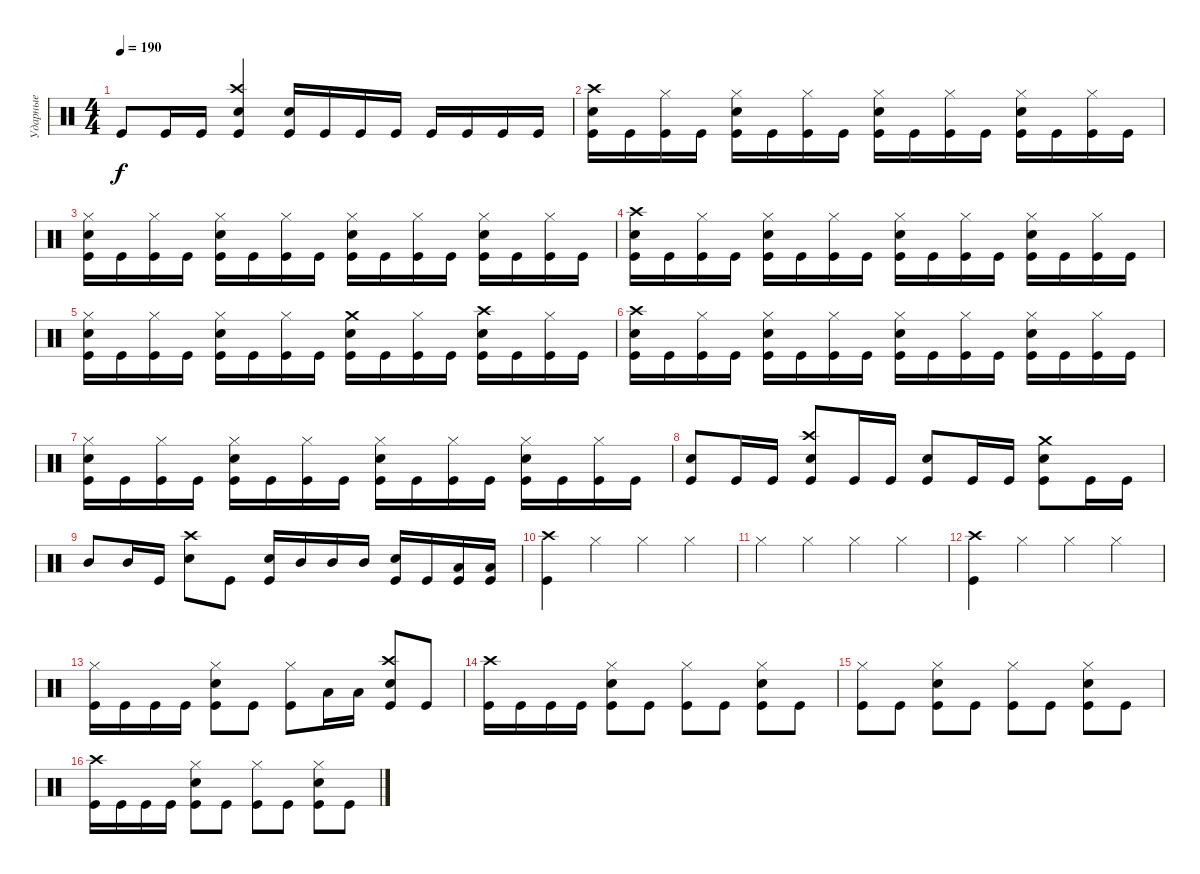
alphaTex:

\track ("Ударные" "Ударные") {instrument percussion}
\staff {score}
\articulation defaults
\ts (4 4)
\tempo 190
\clef neutral
\ks c "Kick (hit)".8{dy f} "Kick (hit)".16 "Kick (hit)".16
("Crash high (hit)" "Electric Snare (hit)" "Kick (hit)").4 ("Electric Snare (hit)" "Kick (hit)").16 "Kick (hit)".16 "Kick (hit)".16 "Kick (hit)".16 "Kick (hit)".16 "Kick (hit)".16 "Kick (hit)".16 "Kick (hit)".16 |
("Crash high (hit)" "Electric Snare (hit)" "Kick (hit)").16 "Kick (hit)".16 ("Hi-Hat (closed)" "Kick (hit)").16 "Kick (hit)".16 ("Hi-Hat (closed)" "Electric Snare (hit)" "Kick (hit)").16 "Kick (hit)".16 ("Hi-Hat (closed)" "Kick (hit)").16 "Kick (hit)".16 ("Hi-Hat (closed)" "Electric Snare (hit)" "Kick (hit)").16 "Kick (hit)".16 ("Hi-Hat (closed)" "Kick (hit)").16 "Kick (hit)".16 ("Hi-Hat (closed)" "Electric Snare (hit)" "Kick (hit)").16 "Kick (hit)".16 ("Hi-Hat (closed)" "Kick (hit)").16 "Kick (hit)".16 |
("Hi-Hat (closed)" "Electric Snare (hit)" "Kick (hit)").16 "Kick (hit)".16 ("Hi-Hat (closed)" "Kick (hit)").16 "Kick (hit)".16 ("Hi-Hat (closed)" "Electric Snare (hit)" "Kick (hit)").16 "Kick (hit)".16 ("Hi-Hat (closed)" "Kick (hit)").16 "Kick (hit)".16 ("Hi-Hat (closed)" "Electric Snare (hit)" "Kick (hit)").16 "Kick (hit)".16 ("Hi-Hat (closed)" "Kick (hit)").16 "Kick (hit)".16 ("Hi-Hat (closed)" "Electric Snare (hit)" "Kick (hit)").16 "Kick (hit)".16 ("Hi-Hat (closed)" "Kick (hit)").16 "Kick (hit)".16 |
("Crash high (hit)" "Electric Snare (hit)" "Kick (hit)").16 "Kick (hit)".16 ("Hi-Hat (closed)" "Kick (hit)").16 "Kick (hit)".16 ("Hi-Hat (closed)" "Electric Snare (hit)" "Kick (hit)").16 "Kick (hit)".16 ("Hi-Hat (closed)" "Kick (hit)").16 "Kick (hit)".16 ("Hi-Hat (closed)" "Electric Snare (hit)" "Kick (hit)").16 "Kick (hit)".16 ("Hi-Hat (closed)" "Kick (hit)").16 "Kick (hit)".16 ("Hi-Hat (closed)" "Electric Snare (hit)" "Kick (hit)").16 "Kick (hit)".16 ("Hi-Hat (closed)" "Kick (hit)").16 "Kick (hit)".16 |
("Hi-Hat (closed)" "Electric Snare (hit)" "Kick (hit)").16 "Kick (hit)".16 ("Hi-Hat (closed)" "Kick (hit)").16 "Kick (hit)".16 ("Hi-Hat (closed)" "Electric Snare (hit)" "Kick (hit)").16 "Kick (hit)".16 ("Hi-Hat (closed)" "Kick (hit)").16 "Kick (hit)".16 ("Crash medium (hit)" "Electric Snare (hit)" "Kick (hit)").16 "Kick (hit)".16 ("Hi-Hat (closed)" "Kick (hit)").16 "Kick (hit)".16 ("Crash high (hit)" "Electric Snare (hit)" "Kick (hit)").16 "Kick (hit)".16 ("Hi-Hat (closed)" "Kick (hit)").16 "Kick (hit)".16 |
("Crash high (hit)" "Electric Snare (hit)" "Kick (hit)").16 "Kick (hit)".16 ("Hi-Hat (closed)" "Kick (hit)").16 "Kick (hit)".16 ("Hi-Hat (closed)" "Electric Snare (hit)" "Kick (hit)").16 "Kick (hit)".16 ("Hi-Hat (closed)" "Kick (hit)").16 "Kick (hit)".16 ("Hi-Hat (closed)" "Electric Snare (hit)" "Kick (hit)").16 "Kick (hit)".16 ("Hi-Hat (closed)" "Kick (hit)").16 "Kick (hit)".16 ("Hi-Hat (closed)" "Electric Snare (hit)" "Kick (hit)").16 "Kick (hit)".16 ("Hi-Hat (closed)" "Kick (hit)").16 "Kick (hit)".16 |
("Hi-Hat (closed)" "Electric Snare (hit)" "Kick (hit)").16 "Kick (hit)".16 ("Hi-Hat (closed)" "Kick (hit)").16 "Kick (hit)".16 ("Hi-Hat (closed)" "Electric Snare (hit)" "Kick (hit)").16 "Kick (hit)".16 ("Hi-Hat (closed)" "Kick (hit)").16 "Kick (hit)".16 ("Hi-Hat (closed)" "Electric Snare (hit)" "Kick (hit)").16 "Kick (hit)".16 ("Hi-Hat (closed)" "Kick (hit)").16 "Kick (hit)".16 ("Hi-Hat (closed)" "Electric Snare (hit)" "Kick (hit)").16 "Kick (hit)".16 ("Hi-Hat (closed)" "Kick (hit)").16 "Kick (hit)".16 |
("Electric Snare (hit)" "Kick (hit)").8 "Kick (hit)".16 "Kick (hit)".16 ("Crash high (hit)" "Electric Snare (hit)" "Kick (hit)").8 "Kick (hit)".16 "Kick (hit)".16 ("Electric Snare (hit)" "Kick (hit)").8 "Kick (hit)".16 "Kick (hit)".16 ("Crash medium (hit)" "Electric Snare (hit)" "Kick (hit)").8 "Kick (hit)".16 "Kick (hit)".16 |
"Mid Tom (hit)".8 "Mid Tom (hit)".16 "Kick (hit)".16 ("Crash high (hit)" "Electric Snare (hit)").8 "Kick (hit)".8 ("Electric Snare (hit)" "Kick (hit)").16 "Mid Tom (hit)".16 "Mid Tom (hit)".16 "Mid Tom (hit)".16 ("Electric Snare (hit)" "Kick (hit)").16 "Kick (hit)".16 ("Low Tom (hit)" "Kick (hit)").16 ("Low Tom (hit)" "Kick (hit)").16 |
("Crash high (hit)" "Kick (hit)").4 "Hi-Hat (closed)".4 "Hi-Hat (closed)".4 "Hi-Hat (closed)".4 |
"Hi-Hat (closed)".4 "Hi-Hat (closed)".4 "Hi-Hat (closed)".4 "Hi-Hat (closed)".4 |
("Crash high (hit)" "Kick (hit)").4 "Hi-Hat (closed)".4 "Hi-Hat (closed)".4 "Hi-Hat (closed)".4 |
("Hi-Hat (closed)" "Kick (hit)").16 "Kick (hit)".16 "Kick (hit)".16 "Kick (hit)".16 ("Hi-Hat (closed)" "Electric Snare (hit)" "Kick (hit)").8 "Kick (hit)".8 ("Hi-Hat (closed)" "Kick (hit)").8 "Low Tom (hit)".16 "Low Tom (hit)".16 ("Crash high (hit)" "Electric Snare (hit)" "Kick (hit)").8 "Kick (hit)".8 |
("Crash high (hit)" "Kick (hit)").16 "Kick (hit)".16 "Kick (hit)".16 "Kick (hit)".16 ("Hi-Hat (closed)" "Electric Snare (hit)" "Kick (hit)").8 "Kick (hit)".8 ("Hi-Hat (closed)" "Kick (hit)").8 "Kick (hit)".8 ("Hi-Hat (closed)" "Electric Snare (hit)" "Kick (hit)").8 "Kick (hit)".8 |
("Hi-Hat (closed)" "Kick (hit)").8 "Kick (hit)".8 ("Hi-Hat (closed)" "Electric Snare (hit)" "Kick (hit)").8 "Kick (hit)".8 ("Hi-Hat (closed)" "Kick (hit)").8 "Kick (hit)".8 ("Hi-Hat (closed)" "Electric Snare (hit)" "Kick (hit)").8 "Kick (hit)".8 |
("Crash high (hit)" "Kick (hit)").16 "Kick (hit)".16 "Kick (hit)".16 "Kick (hit)".16 ("Hi-Hat (closed)" "Electric Snare (hit)" "Kick (hit)").8 "Kick (hit)".8 ("Hi-Hat (closed)" "Kick (hit)").8 "Kick (hit)".8 ("Hi-Hat (closed)" "Electric Snare (hit)" "Kick (hit)").8 "Kick (hit)".8
